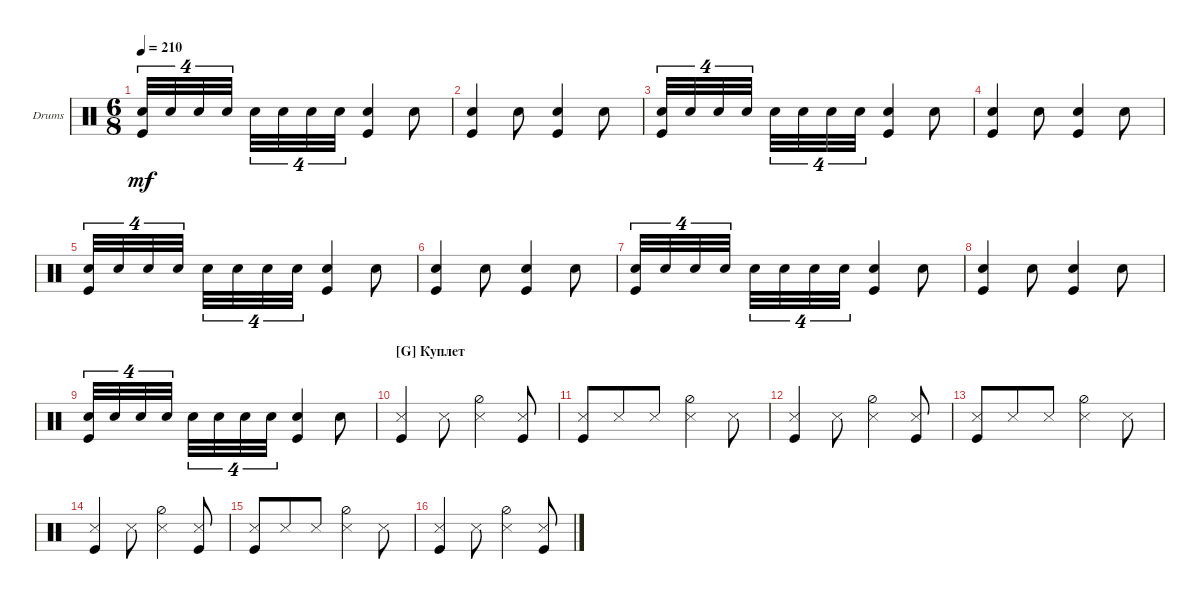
\defaultSystemsLayout 4
\bracketExtendMode nobrackets
\firstSystemTrackNameOrientation horizontal
\otherSystemsTrackNameOrientation horizontal
\track ("Drumkit" "Drums") {instrument percussion}
\staff {score}
\articulation defaults
\ts (6 8)
\tempo 210
\clef neutral
\scale
0.333333
\ks c
("Kick (hit)" "Snare (hit) 2").32{tu (4 6) dy mf} "Snare (hit) 2".32{tu (4 6)} "Snare (hit) 2".32{tu (4 6)} "Snare (hit) 2".32{tu (4 6)} "Snare (hit) 2".32{tu (4 6)} "Snare (hit) 2".32{tu (4 6)} "Snare (hit) 2".32{tu (4 6)} "Snare (hit) 2".32{tu (4 6)} ("Kick (hit)" "Snare (hit) 2").4 "Snare (hit) 2".8 |
\scale
0.333333 ("Kick (hit)" "Snare (hit) 2").4 "Snare (hit) 2".8 ("Kick (hit)" "Snare (hit) 2").4 "Snare (hit) 2".8 |
\scale
0.333333 ("Kick (hit)" "Snare (hit) 2").32{tu (4 6)} "Snare (hit) 2".32{tu (4 6)} "Snare (hit) 2".32{tu (4 6)} "Snare (hit) 2".32{tu (4 6)} "Snare (hit) 2".32{tu (4 6)} "Snare (hit) 2".32{tu (4 6)} "Snare (hit) 2".32{tu (4 6)} "Snare (hit) 2".32{tu (4 6)} ("Kick (hit)" "Snare (hit) 2").4 "Snare (hit) 2".8 |
\scale
0.333333 ("Kick (hit)" "Snare (hit) 2").4 "Snare (hit) 2".8 ("Kick (hit)" "Snare (hit) 2").4 "Snare (hit) 2".8 |
\scale
0.333333 ("Kick (hit)" "Snare (hit) 2").32{tu (4 6)} "Snare (hit) 2".32{tu (4 6)} "Snare (hit) 2".32{tu (4 6)} "Snare (hit) 2".32{tu (4 6)} "Snare (hit) 2".32{tu (4 6)} "Snare (hit) 2".32{tu (4 6)} "Snare (hit) 2".32{tu (4 6)} "Snare (hit) 2".32{tu (4 6)} ("Kick (hit)" "Snare (hit) 2").4 "Snare (hit) 2".8 |
\scale
0.333333 ("Kick (hit)" "Snare (hit) 2").4 "Snare (hit) 2".8 ("Kick (hit)" "Snare (hit) 2").4 "Snare (hit) 2".8 |
\scale
0.333333 ("Kick (hit)" "Snare (hit) 2").32{tu (4 6)} "Snare (hit) 2".32{tu (4 6)} "Snare (hit) 2".32{tu (4 6)} "Snare (hit) 2".32{tu (4 6)} "Snare (hit) 2".32{tu (4 6)} "Snare (hit) 2".32{tu (4 6)} "Snare (hit) 2".32{tu (4 6)} "Snare (hit) 2".32{tu (4 6)} ("Kick (hit)" "Snare (hit) 2").4 "Snare (hit) 2".8 |
\scale
0.333333 ("Kick (hit)" "Snare (hit) 2").4 "Snare (hit) 2".8 ("Kick (hit)" "Snare (hit) 2").4 "Snare (hit) 2".8 |
\scale
0.333333 ("Kick (hit)" "Snare (hit) 2").32{tu (4 6)} "Snare (hit) 2".32{tu (4 6)} "Snare (hit) 2".32{tu (4 6)} "Snare (hit) 2".32{tu (4 6)} "Snare (hit) 2".32{tu (4 6)} "Snare (hit) 2".32{tu (4 6)} "Snare (hit) 2".32{tu (4 6)} "Snare (hit) 2".32{tu (4 6)} ("Kick (hit)" "Snare (hit) 2").4 "Snare (hit) 2".8 |
\section ("G" "Куплет")
\scale
0.333333 ("Kick (hit)" "Snare (side stick) 3").4 "Snare (side stick) 3".8 ("Snare (side stick) 3" "Hi-Hat (half)").4 ("Kick (hit)" "Snare (side stick) 3").8 |
\scale
0.333333 ("Kick (hit)" "Snare (side stick) 3").8 "Snare (side stick) 3".8 "Snare (side stick) 3".8 ("Snare (side stick) 3" "Hi-Hat (half)").4 "Snare (side stick) 3".8 |
\scale
0.333333 ("Kick (hit)" "Snare (side stick) 3").4 "Snare (side stick) 3".8 ("Snare (side stick) 3" "Hi-Hat (half)").4 ("Kick (hit)" "Snare (side stick) 3").8 |
\scale
0.333333 ("Kick (hit)" "Snare (side stick) 3").8 "Snare (side stick) 3".8 "Snare (side stick) 3".8 ("Snare (side stick) 3" "Hi-Hat (half)").4 "Snare (side stick) 3".8 |
\scale
0.333333 ("Kick (hit)" "Snare (side stick) 3").4 "Snare (side stick) 3".8 ("Snare (side stick) 3" "Hi-Hat (half)").4 ("Kick (hit)" "Snare (side stick) 3").8 |
\scale
0.333333 ("Kick (hit)" "Snare (side stick) 3").8 "Snare (side stick) 3".8 "Snare (side stick) 3".8 ("Snare (side stick) 3" "Hi-Hat (half)").4 "Snare (side stick) 3".8 |
\scale
0.333333 ("Kick (hit)" "Snare (side stick) 3").4 "Snare (side stick) 3".8 ("Snare (side stick) 3" "Hi-Hat (half)").4 ("Kick (hit)" "Snare (side stick) 3").8
